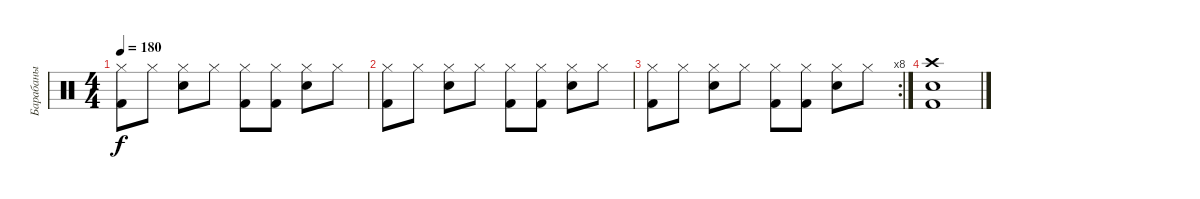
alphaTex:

\track ("Барабаны" "Барабаны") {instrument percussion}
\staff {score}
\articulation defaults
\ts (4 4)
\tempo 180
\clef neutral
\ks c
("Hi-Hat (closed)" "Kick (hit) 2").8{dy f} "Hi-Hat (closed)".8 ("Hi-Hat (closed)" "Electric Snare (hit)").8 "Hi-Hat (closed)".8 ("Hi-Hat (closed)" "Kick (hit) 2").8 ("Hi-Hat (closed)" "Kick (hit) 2").8 ("Hi-Hat (closed)" "Electric Snare (hit)").8 "Hi-Hat (closed)".8 |
("Hi-Hat (closed)" "Kick (hit) 2").8 "Hi-Hat (closed)".8 ("Hi-Hat (closed)" "Electric Snare (hit)").8 "Hi-Hat (closed)".8 ("Hi-Hat (closed)" "Kick (hit) 2").8 ("Hi-Hat (closed)" "Kick (hit) 2").8 ("Hi-Hat (closed)" "Electric Snare (hit)").8 "Hi-Hat (closed)".8 |
\rc 8
("Hi-Hat (closed)" "Kick (hit) 2").8 "Hi-Hat (closed)".8 ("Hi-Hat (closed)" "Electric Snare (hit)").8 "Hi-Hat (closed)".8 ("Hi-Hat (closed)" "Kick (hit) 2").8 ("Hi-Hat (closed)" "Kick (hit) 2").8 ("Hi-Hat (closed)" "Electric Snare (hit)").8 "Hi-Hat (closed)".8 |
("Crash high (hit)" "Kick (hit) 2" "Electric Snare (hit)").1
